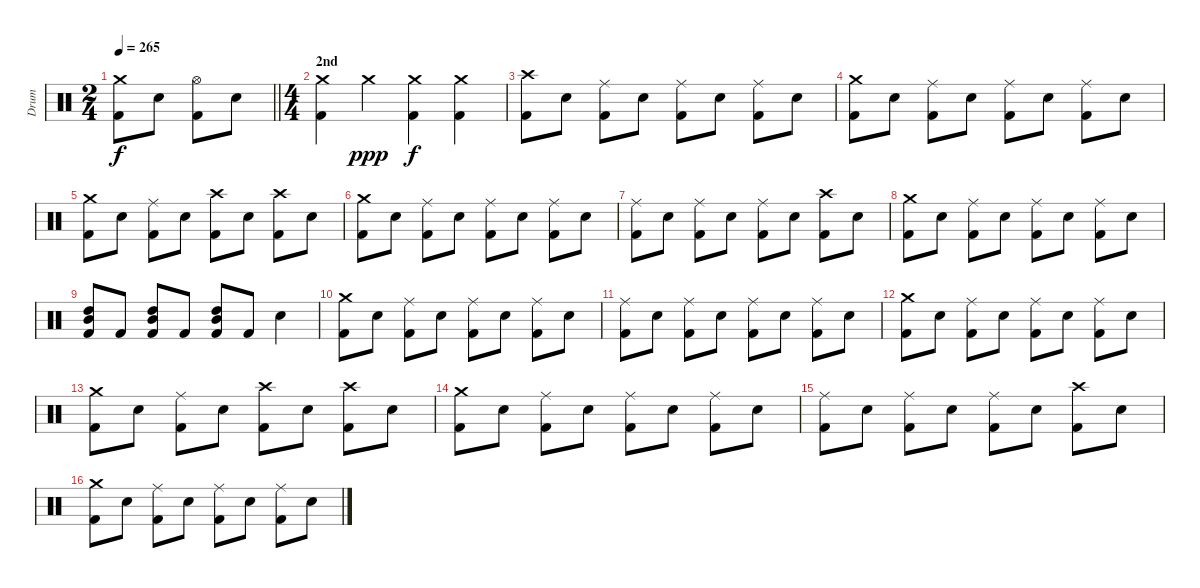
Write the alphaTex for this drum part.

\track ("Drum" "Drum") {instrument percussion}
\staff {score}
\articulation defaults
\ts (2 4)
\tempo 265
\clef neutral
\barLineRight lightlight
\ks c
("Crash medium (hit)" "Kick (hit) 2").8{dy f} "Snare (hit) 2".8 ("Hi-Hat (open)" "Kick (hit) 2").8 "Snare (hit) 2".8 |
\ts (4 4)
\section ("" "2nd")
("Crash medium (hit)" "Kick (hit) 2").4 "Crash medium (hit)".4{dy ppp} ("Crash medium (hit)" "Kick (hit) 2").4{dy f} ("Crash medium (hit)" "Kick (hit) 2").4 |
("Crash high (hit)" "Kick (hit) 2").8 "Snare (hit) 2".8 ("Ride (middle)" "Kick (hit) 2").8 "Snare (hit) 2".8 ("Ride (middle)" "Kick (hit) 2").8 "Snare (hit) 2".8 ("Ride (middle)" "Kick (hit) 2").8 "Snare (hit) 2".8 |
("Crash medium (hit)" "Kick (hit) 2").8 "Snare (hit) 2".8 ("Ride (middle)" "Kick (hit) 2").8 "Snare (hit) 2".8 ("Ride (middle)" "Kick (hit) 2").8 "Snare (hit) 2".8 ("Ride (middle)" "Kick (hit) 2").8 "Snare (hit) 2".8 |
("Crash medium (hit)" "Kick (hit) 2").8 "Snare (hit) 2".8 ("Ride (middle)" "Kick (hit) 2").8 "Snare (hit) 2".8 ("Crash high (hit)" "Kick (hit) 2").8 "Snare (hit) 2".8 ("Crash high (hit)" "Kick (hit) 2").8 "Snare (hit) 2".8 |
("Crash medium (hit)" "Kick (hit) 2").8 "Snare (hit) 2".8 ("Ride (middle)" "Kick (hit) 2").8 "Snare (hit) 2".8 ("Ride (middle)" "Kick (hit) 2").8 "Snare (hit) 2".8 ("Ride (middle)" "Kick (hit) 2").8 "Snare (hit) 2".8 |
("Ride (middle)" "Kick (hit) 2").8 "Snare (hit) 2".8 ("Ride (middle)" "Kick (hit) 2").8 "Snare (hit) 2".8 ("Ride (middle)" "Kick (hit) 2").8 "Snare (hit) 2".8 ("Crash high (hit)" "Kick (hit) 2").8 "Snare (hit) 2".8 |
("Crash medium (hit)" "Kick (hit) 2").8 "Snare (hit) 2".8 ("Ride (middle)" "Kick (hit) 2").8 "Snare (hit) 2".8 ("Ride (middle)" "Kick (hit) 2").8 "Snare (hit) 2".8 ("Ride (middle)" "Kick (hit) 2").8 "Snare (hit) 2".8 |
("Mid Tom (hit)" "High Tom (hit)" "Kick (hit) 2").8 "Kick (hit) 2".8 ("Mid Tom (hit)" "High Tom (hit)" "Kick (hit) 2").8 "Kick (hit) 2".8 ("Mid Tom (hit)" "High Tom (hit)" "Kick (hit) 2").8 "Kick (hit) 2".8 "Snare (hit) 2".4 |
("Crash medium (hit)" "Kick (hit) 2").8 "Snare (hit) 2".8 ("Ride (middle)" "Kick (hit) 2").8 "Snare (hit) 2".8 ("Ride (middle)" "Kick (hit) 2").8 "Snare (hit) 2".8 ("Ride (middle)" "Kick (hit) 2").8 "Snare (hit) 2".8 |
("Ride (middle)" "Kick (hit) 2").8 "Snare (hit) 2".8 ("Ride (middle)" "Kick (hit) 2").8 "Snare (hit) 2".8 ("Ride (middle)" "Kick (hit) 2").8 "Snare (hit) 2".8 ("Ride (middle)" "Kick (hit) 2").8 "Snare (hit) 2".8 |
("Crash medium (hit)" "Kick (hit) 2").8 "Snare (hit) 2".8 ("Ride (middle)" "Kick (hit) 2").8 "Snare (hit) 2".8 ("Ride (middle)" "Kick (hit) 2").8 "Snare (hit) 2".8 ("Ride (middle)" "Kick (hit) 2").8 "Snare (hit) 2".8 |
("Crash medium (hit)" "Kick (hit) 2").8 "Snare (hit) 2".8 ("Ride (middle)" "Kick (hit) 2").8 "Snare (hit) 2".8 ("Crash high (hit)" "Kick (hit) 2").8 "Snare (hit) 2".8 ("Crash high (hit)" "Kick (hit) 2").8 "Snare (hit) 2".8 |
("Crash medium (hit)" "Kick (hit) 2").8 "Snare (hit) 2".8 ("Ride (middle)" "Kick (hit) 2").8 "Snare (hit) 2".8 ("Ride (middle)" "Kick (hit) 2").8 "Snare (hit) 2".8 ("Ride (middle)" "Kick (hit) 2").8 "Snare (hit) 2".8 |
("Ride (middle)" "Kick (hit) 2").8 "Snare (hit) 2".8 ("Ride (middle)" "Kick (hit) 2").8 "Snare (hit) 2".8 ("Ride (middle)" "Kick (hit) 2").8 "Snare (hit) 2".8 ("Crash high (hit)" "Kick (hit) 2").8 "Snare (hit) 2".8 |
("Crash medium (hit)" "Kick (hit) 2").8 "Snare (hit) 2".8 ("Ride (middle)" "Kick (hit) 2").8 "Snare (hit) 2".8 ("Ride (middle)" "Kick (hit) 2").8 "Snare (hit) 2".8 ("Ride (middle)" "Kick (hit) 2").8 "Snare (hit) 2".8
